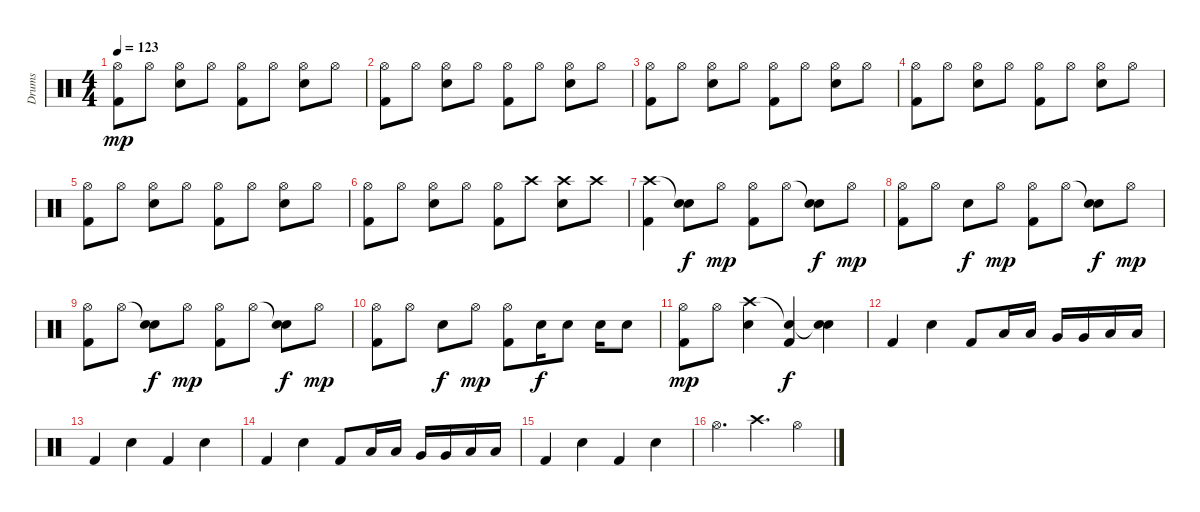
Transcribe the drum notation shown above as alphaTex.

\track ("Drums" "Drums") {instrument percussion}
\staff {score}
\articulation defaults
\ts (4 4)
\tempo 123
\clef neutral
\ks c
("Hi-Hat (open)" "Kick (hit) 2").8{dy mp} "Hi-Hat (open)".8 ("Hi-Hat (open)" "Electric Snare (hit)").8 "Hi-Hat (open)".8 ("Hi-Hat (open)" "Kick (hit) 2").8 "Hi-Hat (open)".8 ("Hi-Hat (open)" "Electric Snare (hit)").8 "Hi-Hat (open)".8 |
("Hi-Hat (open)" "Kick (hit) 2").8 "Hi-Hat (open)".8 ("Hi-Hat (open)" "Electric Snare (hit)").8 "Hi-Hat (open)".8 ("Hi-Hat (open)" "Kick (hit) 2").8 "Hi-Hat (open)".8 ("Hi-Hat (open)" "Electric Snare (hit)").8 "Hi-Hat (open)".8 |
("Hi-Hat (open)" "Kick (hit) 2").8 "Hi-Hat (open)".8 ("Hi-Hat (open)" "Electric Snare (hit)").8 "Hi-Hat (open)".8 ("Hi-Hat (open)" "Kick (hit) 2").8 "Hi-Hat (open)".8 ("Hi-Hat (open)" "Electric Snare (hit)").8 "Hi-Hat (open)".8 |
("Hi-Hat (open)" "Kick (hit) 2").8 "Hi-Hat (open)".8 ("Hi-Hat (open)" "Electric Snare (hit)").8 "Hi-Hat (open)".8 ("Hi-Hat (open)" "Kick (hit) 2").8 "Hi-Hat (open)".8 ("Hi-Hat (open)" "Electric Snare (hit)").8 "Hi-Hat (open)".8 |
("Hi-Hat (open)" "Kick (hit) 2").8 "Hi-Hat (open)".8 ("Hi-Hat (open)" "Electric Snare (hit)").8 "Hi-Hat (open)".8 ("Hi-Hat (open)" "Kick (hit) 2").8 "Hi-Hat (open)".8 ("Hi-Hat (open)" "Electric Snare (hit)").8 "Hi-Hat (open)".8 |
("Hi-Hat (open)" "Kick (hit) 2").8 "Hi-Hat (open)".8 ("Hi-Hat (open)" "Electric Snare (hit)").8 "Hi-Hat (open)".8 ("Hi-Hat (open)" "Kick (hit) 2").8 "Crash high (hit)".8 ("Crash high (hit)" "Electric Snare (hit)").8 "Crash high (hit)".8 |
("Crash high (hit)" "Kick (hit) 2").4 ("Snare (hit)"{t} "Electric Snare (hit)").8{dy f} "Hi-Hat (open)".8{dy mp} ("Hi-Hat (open)" "Kick (hit) 2").8 "Hi-Hat (open)".8 ("Snare (hit)"{t} "Electric Snare (hit)").8{dy f} "Hi-Hat (open)".8{dy mp} |
("Hi-Hat (open)" "Kick (hit) 2").8 "Hi-Hat (open)".8 "Electric Snare (hit)".8{dy f} "Hi-Hat (open)".8{dy mp} ("Hi-Hat (open)" "Kick (hit) 2").8 "Hi-Hat (open)".8 ("Snare (hit)"{t} "Electric Snare (hit)").8{dy f} "Hi-Hat (open)".8{dy mp} |
("Hi-Hat (open)" "Kick (hit) 2").8 "Hi-Hat (open)".8 ("Snare (hit)"{t} "Electric Snare (hit)").8{dy f} "Hi-Hat (open)".8{dy mp} ("Hi-Hat (open)" "Kick (hit) 2").8 "Hi-Hat (open)".8 ("Snare (hit)"{t} "Electric Snare (hit)").8{dy f} "Hi-Hat (open)".8{dy mp} |
("Hi-Hat (open)" "Kick (hit) 2").8 "Hi-Hat (open)".8 "Electric Snare (hit)".8{dy f} "Hi-Hat (open)".8{dy mp} ("Hi-Hat (open)" "Kick (hit) 2").8 "Electric Snare (hit)".16{dy f} "Electric Snare (hit)".8 "Electric Snare (hit)".16 "Electric Snare (hit)".8 |
("Hi-Hat (open)" "Kick (hit) 2").8{dy mp} "Hi-Hat (open)".8 ("Crash high (hit)" "Electric Snare (hit)").4 ("Snare (hit)"{t} "Kick (hit) 2").4{dy f} ("Snare (hit)"{t} "Electric Snare (hit)").4 |
"Kick (hit) 2".4 "Electric Snare (hit)".4 "Kick (hit) 2".8 "Low Tom (hit)".16 "Low Tom (hit)".16 "Very Low Tom (hit)".16 "Very Low Tom (hit)".16 "Low Floor Tom (hit)".16 "Low Floor Tom (hit)".16 |
"Kick (hit) 2".4 "Electric Snare (hit)".4 "Kick (hit) 2".4 "Electric Snare (hit)".4 |
"Kick (hit) 2".4 "Electric Snare (hit)".4 "Kick (hit) 2".8 "Low Tom (hit)".16 "Low Tom (hit)".16 "Very Low Tom (hit)".16 "Very Low Tom (hit)".16 "Low Floor Tom (hit)".16 "Low Floor Tom (hit)".16 |
"Kick (hit) 2".4 "Electric Snare (hit)".4 "Kick (hit) 2".4 "Electric Snare (hit)".4 |
"Hi-Hat (open)".4{d} "Crash high (hit)".4{d} "Hi-Hat (open)".4
